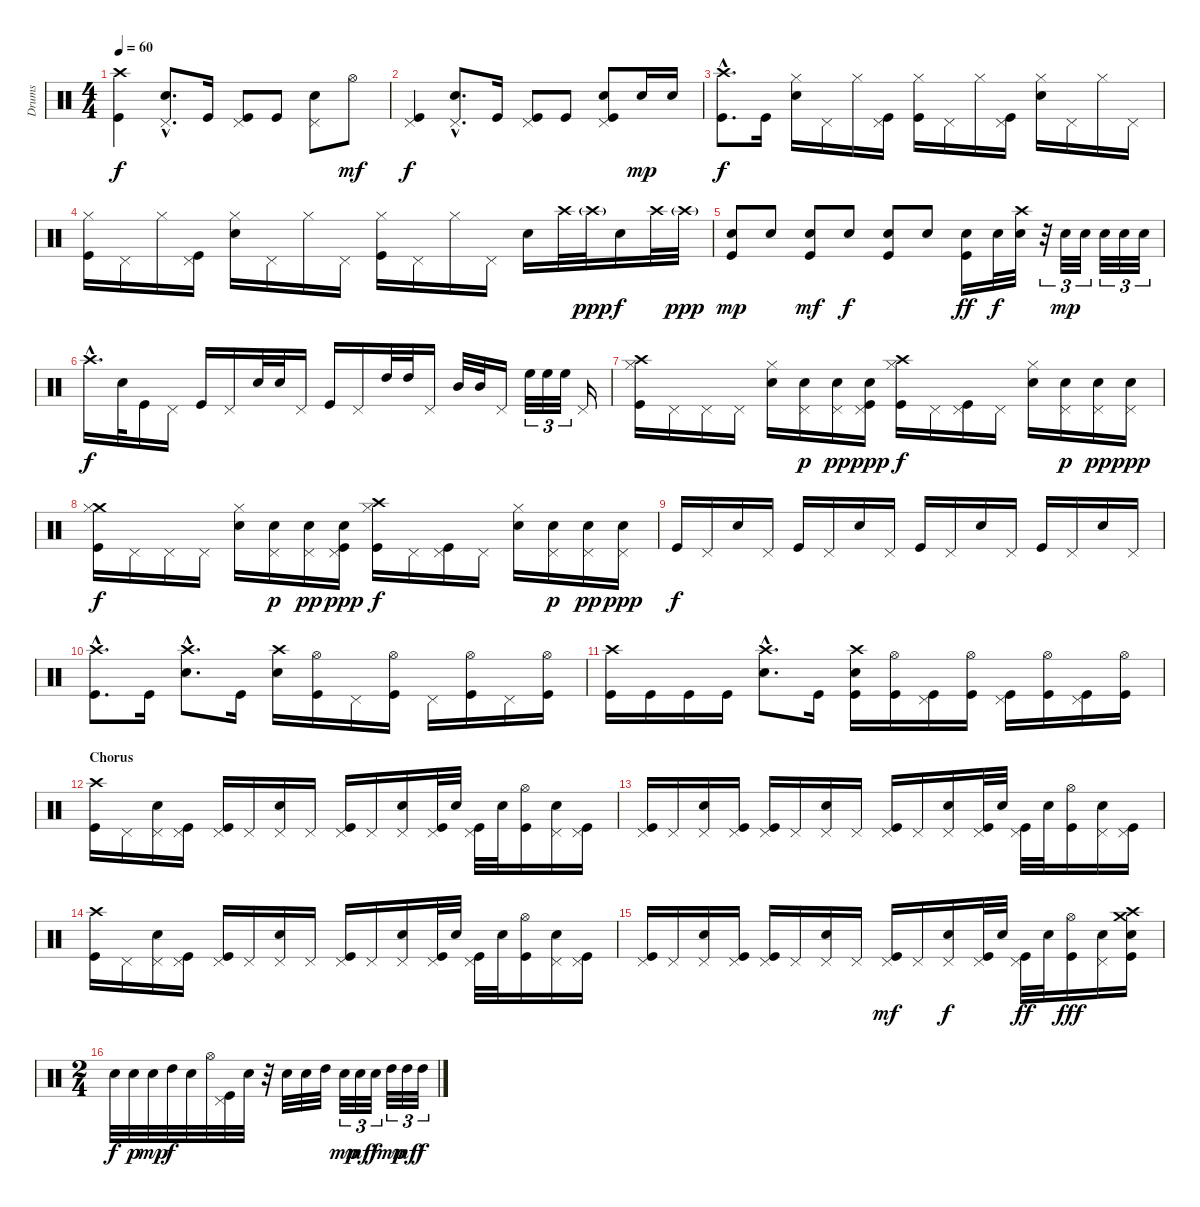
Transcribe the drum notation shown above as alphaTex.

\track ("Drums" "Drums") {instrument percussion}
\staff {score}
\articulation defaults
\ts (4 4)
\tempo 60
\clef neutral
\ks c
("Crash high (hit)" "Kick (hit)").4{dy f} ("Pedal Hi-Hat (hit)"{hac} "Electric Snare (hit)"{hac}).8{d} "Kick (hit)".16 ("Pedal Hi-Hat (hit)" "Kick (hit)").8 "Kick (hit)".8 ("Pedal Hi-Hat (hit)" "Electric Snare (hit)").8 "Hi-Hat (open)".8{dy mf} |
("Pedal Hi-Hat (hit)" "Kick (hit)").4{dy f} ("Pedal Hi-Hat (hit)"{hac} "Electric Snare (hit)"{hac}).8{d} "Kick (hit)".16 ("Pedal Hi-Hat (hit)" "Kick (hit)").8 "Kick (hit)".8 ("Pedal Hi-Hat (hit)" "Electric Snare (hit)" "Kick (hit)").8 "Electric Snare (hit)".16{dy mp} "Electric Snare (hit)".16 |
("Crash high (hit)"{hac} "Kick (hit)"{hac}).8{d dy f} "Kick (hit)".16 ("Hi-Hat (closed)" "Electric Snare (hit)").16 "Pedal Hi-Hat (hit)".16 "Hi-Hat (closed)".16 ("Pedal Hi-Hat (hit)" "Kick (hit)").16 ("Hi-Hat (closed)" "Kick (hit)").16 "Pedal Hi-Hat (hit)".16 "Hi-Hat (closed)".16 ("Pedal Hi-Hat (hit)" "Kick (hit)").16 ("Hi-Hat (closed)" "Electric Snare (hit)").16 "Pedal Hi-Hat (hit)".16 "Hi-Hat (closed)".16 "Pedal Hi-Hat (hit)".16 |
("Hi-Hat (closed)" "Kick (hit)").16 "Pedal Hi-Hat (hit)".16 "Hi-Hat (closed)".16 ("Pedal Hi-Hat (hit)" "Kick (hit)").16 ("Hi-Hat (closed)" "Electric Snare (hit)").16 "Pedal Hi-Hat (hit)".16 "Hi-Hat (closed)".16 "Pedal Hi-Hat (hit)".16 ("Hi-Hat (closed)" "Kick (hit)").16 "Pedal Hi-Hat (hit)".16 "Hi-Hat (closed)".16 "Pedal Hi-Hat (hit)".16 "Electric Snare (hit)".16 "Crash high (hit)".32 "Crash high (hit)"{g}.32{dy ppp} "Electric Snare (hit)".16{dy f} "Crash high (hit)".32 "Crash high (hit)"{g}.32{dy ppp} |
("Electric Snare (hit)" "Kick (hit)").8{dy mp} "Electric Snare (hit)".8 ("Electric Snare (hit)" "Kick (hit)").8{dy mf} "Electric Snare (hit)".8{dy f} ("Electric Snare (hit)" "Kick (hit)").8 "Electric Snare (hit)".8 ("Electric Snare (hit)" "Kick (hit)").16{dy ff} "Electric Snare (hit)".32{dy f} ("Crash high (hit)" "Electric Snare (hit)").32 r.32{tu (3 2)} "Electric Snare (hit)".32{tu (3 2) dy mp} "Electric Snare (hit)".32{tu (3 2)} "Electric Snare (hit)".32{tu (3 2)} "Electric Snare (hit)".32{tu (3 2)} "Electric Snare (hit)".32{tu (3 2)} |
"Crash high (hit)"{hac}.16{d dy f} "Electric Snare (hit)".32 "Kick (hit)".16 "Pedal Hi-Hat (hit)".16 "Kick (hit)".16 "Pedal Hi-Hat (hit)".16 "Electric Snare (hit)".32 "Electric Snare (hit)".32 "Pedal Hi-Hat (hit)".16 "Kick (hit)".16 "Pedal Hi-Hat (hit)".16 "High Tom (hit)".32 "High Tom (hit)".32 "Pedal Hi-Hat (hit)".16 "Mid Tom (hit)".32 "Mid Tom (hit)".32 "Pedal Hi-Hat (hit)".16 "High Floor Tom (hit)".32{tu (3 2)} "High Floor Tom (hit)".32{tu (3 2)} "High Floor Tom (hit)".32{tu (3 2)} "Pedal Hi-Hat (hit)".16 |
("Crash high (hit)" "Hi-Hat (closed)" "Kick (hit)").16 "Pedal Hi-Hat (hit)".16 "Pedal Hi-Hat (hit)".16 "Pedal Hi-Hat (hit)".16 ("Hi-Hat (closed)" "Electric Snare (hit)").16 ("Pedal Hi-Hat (hit)" "Electric Snare (hit)").16{dy p} ("Pedal Hi-Hat (hit)" "Electric Snare (hit)").16{dy pp} ("Pedal Hi-Hat (hit)" "Electric Snare (hit)" "Kick (hit)").16{dy ppp} ("Crash high (hit)" "Hi-Hat (closed)" "Kick (hit)").16{dy f} "Pedal Hi-Hat (hit)".16 ("Pedal Hi-Hat (hit)" "Kick (hit)").16 "Pedal Hi-Hat (hit)".16 ("Hi-Hat (closed)" "Electric Snare (hit)").16 ("Pedal Hi-Hat (hit)" "Electric Snare (hit)").16{dy p} ("Pedal Hi-Hat (hit)" "Electric Snare (hit)").16{dy pp} ("Pedal Hi-Hat (hit)" "Electric Snare (hit)").16{dy ppp} |
("Crash medium (hit)" "Hi-Hat (closed)" "Kick (hit)").16{dy f} "Pedal Hi-Hat (hit)".16 "Pedal Hi-Hat (hit)".16 "Pedal Hi-Hat (hit)".16 ("Hi-Hat (closed)" "Electric Snare (hit)").16 ("Pedal Hi-Hat (hit)" "Electric Snare (hit)").16{dy p} ("Pedal Hi-Hat (hit)" "Electric Snare (hit)").16{dy pp} ("Pedal Hi-Hat (hit)" "Electric Snare (hit)" "Kick (hit)").16{dy ppp} ("Crash high (hit)" "Hi-Hat (closed)" "Kick (hit)").16{dy f} "Pedal Hi-Hat (hit)".16 ("Pedal Hi-Hat (hit)" "Kick (hit)").16 "Pedal Hi-Hat (hit)".16 ("Hi-Hat (closed)" "Electric Snare (hit)").16 ("Pedal Hi-Hat (hit)" "Electric Snare (hit)").16{dy p} ("Pedal Hi-Hat (hit)" "Electric Snare (hit)").16{dy pp} ("Pedal Hi-Hat (hit)" "Electric Snare (hit)").16{dy ppp} |
"Kick (hit)".16{dy f} "Pedal Hi-Hat (hit)".16 "Electric Snare (hit)".16 "Pedal Hi-Hat (hit)".16 "Kick (hit)".16 "Pedal Hi-Hat (hit)".16 "Electric Snare (hit)".16 "Pedal Hi-Hat (hit)".16 "Kick (hit)".16 "Pedal Hi-Hat (hit)".16 "Electric Snare (hit)".16 "Pedal Hi-Hat (hit)".16 "Kick (hit)".16 "Pedal Hi-Hat (hit)".16 "Electric Snare (hit)".16 "Pedal Hi-Hat (hit)".16 |
("Crash high (hit)"{hac} "Kick (hit)"{hac}).8{d} "Kick (hit)".16 ("Crash high (hit)"{hac} "Electric Snare (hit)"{hac}).8{d} "Kick (hit)".16 ("Crash high (hit)" "Electric Snare (hit)").16 ("Hi-Hat (open)" "Kick (hit)").16 "Pedal Hi-Hat (hit)".16 ("Hi-Hat (open)" "Kick (hit)").16 "Pedal Hi-Hat (hit)".16 ("Hi-Hat (open)" "Kick (hit)").16 "Pedal Hi-Hat (hit)".16 ("Hi-Hat (open)" "Kick (hit)").16 |
("Crash high (hit)" "Kick (hit)").16 "Kick (hit)".16 "Kick (hit)".16 "Kick (hit)".16 ("Crash high (hit)"{hac} "Electric Snare (hit)"{hac}).8{d} "Kick (hit)".16 ("Crash high (hit)" "Electric Snare (hit)" "Kick (hit)").16 ("Hi-Hat (open)" "Kick (hit)").16 ("Pedal Hi-Hat (hit)" "Kick (hit)").16 ("Hi-Hat (open)" "Kick (hit)").16 ("Pedal Hi-Hat (hit)" "Kick (hit)").16 ("Hi-Hat (open)" "Kick (hit)").16 ("Pedal Hi-Hat (hit)" "Kick (hit)").16 ("Hi-Hat (open)" "Kick (hit)").16 |
\section ("" "Chorus")
("Crash high (hit)" "Kick (hit)").16 "Pedal Hi-Hat (hit)".16 ("Pedal Hi-Hat (hit)" "Electric Snare (hit)").16 ("Pedal Hi-Hat (hit)" "Kick (hit)").16 ("Pedal Hi-Hat (hit)" "Kick (hit)").16 "Pedal Hi-Hat (hit)".16 ("Pedal Hi-Hat (hit)" "Electric Snare (hit)").16 "Pedal Hi-Hat (hit)".16 ("Pedal Hi-Hat (hit)" "Kick (hit)").16 "Pedal Hi-Hat (hit)".16 ("Pedal Hi-Hat (hit)" "Electric Snare (hit)").16 ("Pedal Hi-Hat (hit)" "Kick (hit)").32 "Electric Snare (hit)".32 ("Pedal Hi-Hat (hit)" "Kick (hit)").32 "Electric Snare (hit)".32 ("Hi-Hat (open)" "Kick (hit)").16 ("Pedal Hi-Hat (hit)" "Electric Snare (hit)").16 ("Pedal Hi-Hat (hit)" "Kick (hit)").16 |
("Pedal Hi-Hat (hit)" "Kick (hit)").16 "Pedal Hi-Hat (hit)".16 ("Pedal Hi-Hat (hit)" "Electric Snare (hit)").16 ("Pedal Hi-Hat (hit)" "Kick (hit)").16 ("Pedal Hi-Hat (hit)" "Kick (hit)").16 "Pedal Hi-Hat (hit)".16 ("Pedal Hi-Hat (hit)" "Electric Snare (hit)").16 "Pedal Hi-Hat (hit)".16 ("Pedal Hi-Hat (hit)" "Kick (hit)").16 "Pedal Hi-Hat (hit)".16 ("Pedal Hi-Hat (hit)" "Electric Snare (hit)").16 ("Pedal Hi-Hat (hit)" "Kick (hit)").32 "Electric Snare (hit)".32 ("Pedal Hi-Hat (hit)" "Kick (hit)").32 "Electric Snare (hit)".32 ("Hi-Hat (open)" "Kick (hit)").16 ("Pedal Hi-Hat (hit)" "Electric Snare (hit)").16 ("Pedal Hi-Hat (hit)" "Kick (hit)").16 |
("Crash high (hit)" "Kick (hit)").16 "Pedal Hi-Hat (hit)".16 ("Pedal Hi-Hat (hit)" "Electric Snare (hit)").16 ("Pedal Hi-Hat (hit)" "Kick (hit)").16 ("Pedal Hi-Hat (hit)" "Kick (hit)").16 "Pedal Hi-Hat (hit)".16 ("Pedal Hi-Hat (hit)" "Electric Snare (hit)").16 "Pedal Hi-Hat (hit)".16 ("Pedal Hi-Hat (hit)" "Kick (hit)").16 "Pedal Hi-Hat (hit)".16 ("Pedal Hi-Hat (hit)" "Electric Snare (hit)").16 ("Pedal Hi-Hat (hit)" "Kick (hit)").32 "Electric Snare (hit)".32 ("Pedal Hi-Hat (hit)" "Kick (hit)").32 "Electric Snare (hit)".32 ("Hi-Hat (open)" "Kick (hit)").16 ("Pedal Hi-Hat (hit)" "Electric Snare (hit)").16 ("Pedal Hi-Hat (hit)" "Kick (hit)").16 |
("Pedal Hi-Hat (hit)" "Kick (hit)").16 "Pedal Hi-Hat (hit)".16 ("Pedal Hi-Hat (hit)" "Electric Snare (hit)").16 ("Pedal Hi-Hat (hit)" "Kick (hit)").16 ("Pedal Hi-Hat (hit)" "Kick (hit)").16 "Pedal Hi-Hat (hit)".16 ("Pedal Hi-Hat (hit)" "Electric Snare (hit)").16 "Pedal Hi-Hat (hit)".16 ("Pedal Hi-Hat (hit)" "Kick (hit)").16{dy mf} "Pedal Hi-Hat (hit)".16 ("Pedal Hi-Hat (hit)" "Electric Snare (hit)").16{dy f} ("Pedal Hi-Hat (hit)" "Kick (hit)").32 "Electric Snare (hit)".32 ("Pedal Hi-Hat (hit)" "Kick (hit)").32{dy ff} "Electric Snare (hit)".32 ("Hi-Hat (open)" "Kick (hit)").16{dy fff} ("Pedal Hi-Hat (hit)" "Electric Snare (hit)").16 ("Crash high (hit)" "Crash medium (hit)" "Electric Snare (hit)" "Kick (hit)").16 |
\ts (2 4)
"Electric Snare (hit)".32{dy f} "Electric Snare (hit)".32{dy p} "Electric Snare (hit)".32{dy mp} "High Tom (hit)".32{dy f} "Electric Snare (hit)".32 "Hi-Hat (open)".32 ("Pedal Hi-Hat (hit)" "Kick (hit)").32 "Electric Snare (hit)".32 r.32 "Electric Snare (hit)".32 "Electric Snare (hit)".32 "High Tom (hit)".32 "Electric Snare (hit)".32{tu (3 2) dy mp} "Electric Snare (hit)".32{tu (3 2) dy mf} "Electric Snare (hit)".32{tu (3 2) dy f} "High Tom (hit)".32{tu (3 2) dy mp} "High Tom (hit)".32{tu (3 2) dy mf} "High Tom (hit)".32{tu (3 2) dy f}
